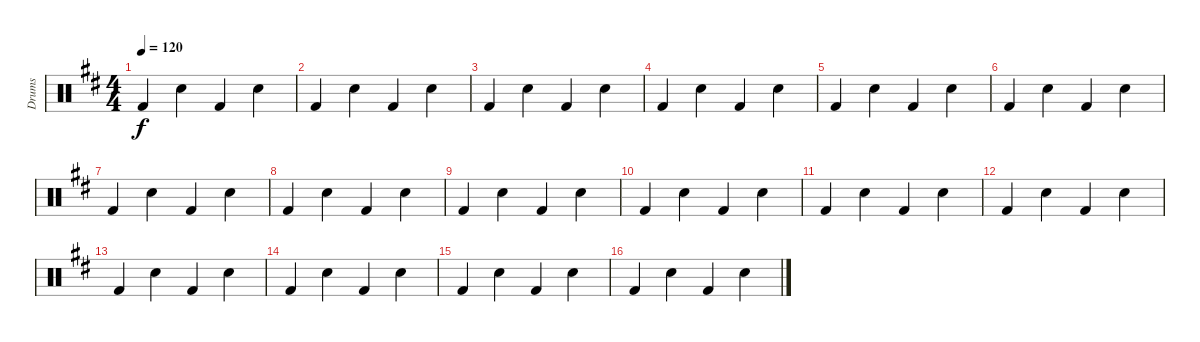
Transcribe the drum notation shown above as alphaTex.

\track ("Drums" "Drums") {instrument percussion}
\staff {score}
\articulation defaults
\ts (4 4)
\tempo 120
\clef neutral
\ks d "Kick (hit) 2".4{dy f} "Snare (hit) 2".4 "Kick (hit) 2".4 "Snare (hit) 2".4
|
"Kick (hit) 2".4 "Snare (hit) 2".4 "Kick (hit) 2".4 "Snare (hit) 2".4 |
"Kick (hit) 2".4 "Snare (hit) 2".4 "Kick (hit) 2".4 "Snare (hit) 2".4 |
"Kick (hit) 2".4 "Snare (hit) 2".4 "Kick (hit) 2".4 "Snare (hit) 2".4 |
"Kick (hit) 2".4 "Snare (hit) 2".4 "Kick (hit) 2".4 "Snare (hit) 2".4 |
"Kick (hit) 2".4 "Snare (hit) 2".4 "Kick (hit) 2".4 "Snare (hit) 2".4 |
"Kick (hit) 2".4 "Snare (hit) 2".4 "Kick (hit) 2".4 "Snare (hit) 2".4 |
"Kick (hit) 2".4 "Snare (hit) 2".4 "Kick (hit) 2".4 "Snare (hit) 2".4 |
"Kick (hit) 2".4 "Snare (hit) 2".4 "Kick (hit) 2".4 "Snare (hit) 2".4 |
"Kick (hit) 2".4 "Snare (hit) 2".4 "Kick (hit) 2".4 "Snare (hit) 2".4 |
"Kick (hit) 2".4 "Snare (hit) 2".4 "Kick (hit) 2".4 "Snare (hit) 2".4 |
"Kick (hit) 2".4 "Snare (hit) 2".4 "Kick (hit) 2".4 "Snare (hit) 2".4 |
"Kick (hit) 2".4 "Snare (hit) 2".4 "Kick (hit) 2".4 "Snare (hit) 2".4 |
"Kick (hit) 2".4 "Snare (hit) 2".4 "Kick (hit) 2".4 "Snare (hit) 2".4 |
"Kick (hit) 2".4 "Snare (hit) 2".4 "Kick (hit) 2".4 "Snare (hit) 2".4 |
"Kick (hit) 2".4 "Snare (hit) 2".4 "Kick (hit) 2".4 "Snare (hit) 2".4
